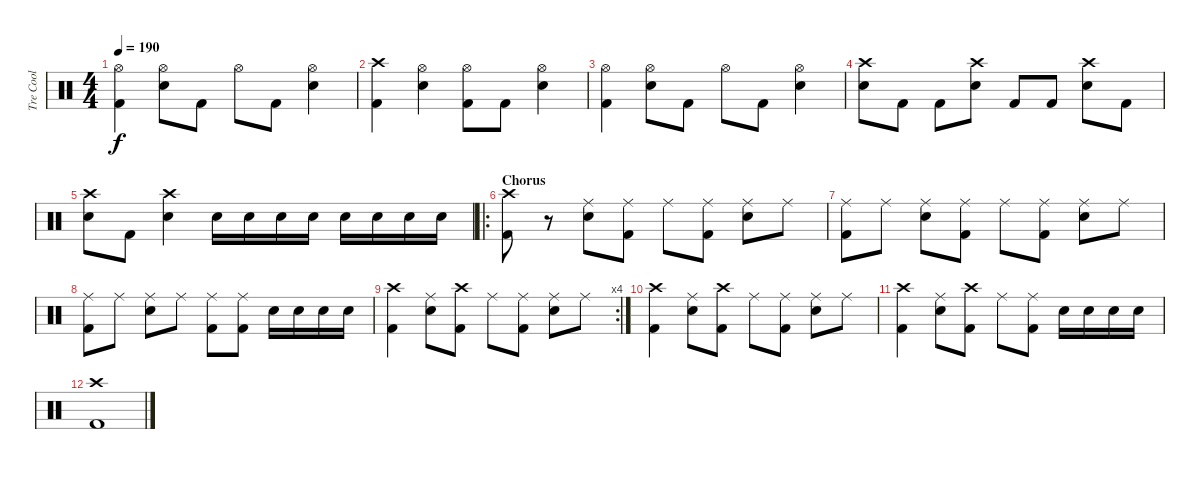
\track ("Tre Cool" "Tre Cool") {instrument percussion}
\staff {score}
\articulation defaults
\ts (4 4)
\tempo 190
\clef neutral
\ks c
("Hi-Hat (open)" "Kick (hit) 2").4{dy f} ("Hi-Hat (open)" "Snare (hit) 2").8 "Kick (hit) 2".8 "Hi-Hat (open)".8 "Kick (hit) 2".8 ("Hi-Hat (open)" "Snare (hit) 2").4 |
("Crash high (hit)" "Kick (hit) 2").4 ("Hi-Hat (open)" "Snare (hit) 2").4 ("Hi-Hat (open)" "Kick (hit) 2").8 "Kick (hit) 2".8 ("Hi-Hat (open)" "Snare (hit) 2").4 |
("Hi-Hat (open)" "Kick (hit) 2").4 ("Hi-Hat (open)" "Snare (hit) 2").8 "Kick (hit) 2".8 "Hi-Hat (open)".8 "Kick (hit) 2".8 ("Hi-Hat (open)" "Snare (hit) 2").4 |
("Crash high (hit)" "Snare (hit) 2").8 "Kick (hit) 2".8 "Kick (hit) 2".8 ("Crash high (hit)" "Snare (hit) 2").8 "Kick (hit) 2".8 "Kick (hit) 2".8 ("Crash high (hit)" "Snare (hit) 2").8 "Kick (hit) 2".8 |
("Crash high (hit)" "Snare (hit) 2").8 "Kick (hit) 2".8 ("Crash high (hit)" "Snare (hit) 2").4 "Snare (hit) 2".16 "Snare (hit) 2".16 "Snare (hit) 2".16 "Snare (hit) 2".16 "Snare (hit) 2".16 "Snare (hit) 2".16 "Snare (hit) 2".16 "Snare (hit) 2".16 |
\ro
\section ("" "Chorus")
("Crash high (hit)" "Kick (hit) 2").8 r.8 ("Ride (middle)" "Snare (hit) 2").8 ("Ride (middle)" "Kick (hit) 2").8 "Ride (middle)".8 ("Ride (middle)" "Kick (hit) 2").8 ("Ride (middle)" "Snare (hit) 2").8 "Ride (middle)".8 |
("Ride (middle)" "Kick (hit) 2").8 "Ride (middle)".8 ("Ride (middle)" "Snare (hit) 2").8 ("Ride (middle)" "Kick (hit) 2").8 "Ride (middle)".8 ("Ride (middle)" "Kick (hit) 2").8 ("Ride (middle)" "Snare (hit) 2").8 "Ride (middle)".8 |
("Ride (middle)" "Kick (hit) 2").8 "Ride (middle)".8 ("Ride (middle)" "Snare (hit) 2").8 "Ride (middle)".8 ("Ride (middle)" "Kick (hit) 2").8 ("Ride (middle)" "Kick (hit) 2").8 "Snare (hit) 2".16 "Snare (hit) 2".16 "Snare (hit) 2".16 "Snare (hit) 2".16 |
\rc 4
("Crash high (hit)" "Kick (hit) 2").4 ("Ride (middle)" "Snare (hit) 2").8 ("Crash high (hit)" "Kick (hit) 2").8 "Ride (middle)".8 ("Ride (middle)" "Kick (hit) 2").8 ("Ride (middle)" "Snare (hit) 2").8 "Ride (middle)".8 |
("Crash high (hit)" "Kick (hit) 2").4 ("Ride (middle)" "Snare (hit) 2").8 ("Crash high (hit)" "Kick (hit) 2").8 "Ride (middle)".8 ("Ride (middle)" "Kick (hit) 2").8 ("Ride (middle)" "Snare (hit) 2").8 "Ride (middle)".8 |
("Crash high (hit)" "Kick (hit) 2").4 ("Ride (middle)" "Snare (hit) 2").8 ("Crash high (hit)" "Kick (hit) 2").8 "Ride (middle)".8 ("Ride (middle)" "Kick (hit) 2").8 "Snare (hit) 2".16 "Snare (hit) 2".16 "Snare (hit) 2".16 "Snare (hit) 2".16 |
("Crash high (hit)" "Kick (hit) 2").1
